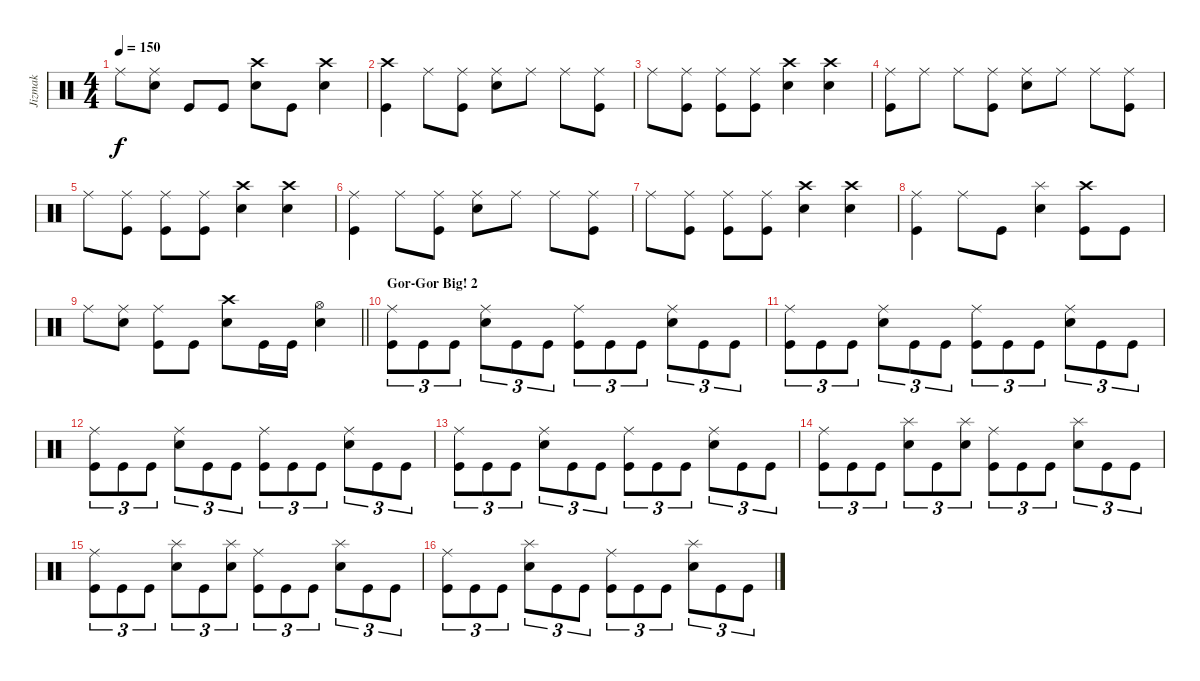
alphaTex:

\track ("Jizmak" "Jizmak") {instrument percussion}
\staff {score}
\articulation defaults
\ts (4 4)
\tempo 150
\clef neutral
\ks c "Ride (middle)".8{dy f}
("Ride (middle)" "Snare (hit) 2").8 "Kick (hit)".8 "Kick (hit)".8 ("Crash high (hit)" "Snare (hit) 2").8 "Kick (hit)".8 ("Crash high (hit)" "Snare (hit) 2").4 |
("Crash high (hit)" "Kick (hit)").4 "Ride (middle)".8 ("Ride (middle)" "Kick (hit)").8 ("Ride (middle)" "Snare (hit) 2").8 "Ride (middle)".8 "Ride (middle)".8 ("Ride (middle)" "Kick (hit)").8 |
"Ride (middle)".8 ("Ride (middle)" "Kick (hit)").8 ("Ride (middle)" "Kick (hit)").8 ("Ride (middle)" "Kick (hit)").8 ("Crash high (hit)" "Snare (hit) 2").4 ("Crash high (hit)" "Snare (hit) 2").4 |
("Ride (middle)" "Kick (hit)").8 "Ride (middle)".8 "Ride (middle)".8 ("Ride (middle)" "Kick (hit)").8 ("Ride (middle)" "Snare (hit) 2").8 "Ride (middle)".8 "Ride (middle)".8 ("Ride (middle)" "Kick (hit)").8 |
"Ride (middle)".8 ("Ride (middle)" "Kick (hit)").8 ("Ride (middle)" "Kick (hit)").8 ("Ride (middle)" "Kick (hit)").8 ("Crash high (hit)" "Snare (hit) 2").4 ("Crash high (hit)" "Snare (hit) 2").4 |
("Ride (middle)" "Kick (hit)").4 "Ride (middle)".8 ("Ride (middle)" "Kick (hit)").8 ("Ride (middle)" "Snare (hit) 2").8 "Ride (middle)".8 "Ride (middle)".8 ("Ride (middle)" "Kick (hit)").8 |
"Ride (middle)".8 ("Ride (middle)" "Kick (hit)").8 ("Ride (middle)" "Kick (hit)").8 ("Ride (middle)" "Kick (hit)").8 ("Crash high (hit)" "Snare (hit) 2").4 ("Crash high (hit)" "Snare (hit) 2").4 |
("Ride (middle)" "Kick (hit)").4 "Ride (middle)".8 "Kick (hit)".8 ("Splash (hit)" "Snare (hit) 2").4 ("Crash high (hit)" "Kick (hit)").8 "Kick (hit)".8 |
\barLineRight lightlight "Ride (middle)".8
("Ride (middle)" "Snare (hit) 2").8 ("Ride (middle)" "Kick (hit)").8 "Kick (hit)".8 ("Crash high (hit)" "Snare (hit) 2").8 "Kick (hit)".16 "Kick (hit)".16 ("Hi-Hat (open)" "Snare (hit) 2").4 |
\section ("" "Gor-Gor Big! 2")
("Ride (middle)" "Kick (hit)").8{tu (3 2)} "Kick (hit)".8{tu (3 2)} "Kick (hit)".8{tu (3 2)} ("Ride (middle)" "Snare (hit) 2").8{tu (3 2)} "Kick (hit)".8{tu (3 2)} "Kick (hit)".8{tu (3 2)} ("Ride (middle)" "Kick (hit)").8{tu (3 2)} "Kick (hit)".8{tu (3 2)} "Kick (hit)".8{tu (3 2)} ("Ride (middle)" "Snare (hit) 2").8{tu (3 2)} "Kick (hit)".8{tu (3 2)} "Kick (hit)".8{tu (3 2)} |
("Ride (middle)" "Kick (hit)").8{tu (3 2)} "Kick (hit)".8{tu (3 2)} "Kick (hit)".8{tu (3 2)} ("Ride (middle)" "Snare (hit) 2").8{tu (3 2)} "Kick (hit)".8{tu (3 2)} "Kick (hit)".8{tu (3 2)} ("Ride (middle)" "Kick (hit)").8{tu (3 2)} "Kick (hit)".8{tu (3 2)} "Kick (hit)".8{tu (3 2)} ("Ride (middle)" "Snare (hit) 2").8{tu (3 2)} "Kick (hit)".8{tu (3 2)} "Kick (hit)".8{tu (3 2)} |
("Ride (middle)" "Kick (hit)").8{tu (3 2)} "Kick (hit)".8{tu (3 2)} "Kick (hit)".8{tu (3 2)} ("Ride (middle)" "Snare (hit) 2").8{tu (3 2)} "Kick (hit)".8{tu (3 2)} "Kick (hit)".8{tu (3 2)} ("Ride (middle)" "Kick (hit)").8{tu (3 2)} "Kick (hit)".8{tu (3 2)} "Kick (hit)".8{tu (3 2)} ("Ride (middle)" "Snare (hit) 2").8{tu (3 2)} "Kick (hit)".8{tu (3 2)} "Kick (hit)".8{tu (3 2)} |
("Ride (middle)" "Kick (hit)").8{tu (3 2)} "Kick (hit)".8{tu (3 2)} "Kick (hit)".8{tu (3 2)} ("Ride (middle)" "Snare (hit) 2").8{tu (3 2)} "Kick (hit)".8{tu (3 2)} "Kick (hit)".8{tu (3 2)} ("Ride (middle)" "Kick (hit)").8{tu (3 2)} "Kick (hit)".8{tu (3 2)} "Kick (hit)".8{tu (3 2)} ("Ride (middle)" "Snare (hit) 2").8{tu (3 2)} "Kick (hit)".8{tu (3 2)} "Kick (hit)".8{tu (3 2)} |
("Ride (middle)" "Kick (hit)").8{tu (3 2)} "Kick (hit)".8{tu (3 2)} "Kick (hit)".8{tu (3 2)} ("Splash (hit)" "Snare (hit) 2").8{tu (3 2)} "Kick (hit)".8{tu (3 2)} ("Splash (hit)" "Snare (hit) 2").8{tu (3 2)} ("Ride (middle)" "Kick (hit)").8{tu (3 2)} "Kick (hit)".8{tu (3 2)} "Kick (hit)".8{tu (3 2)} ("Splash (hit)" "Snare (hit) 2").8{tu (3 2)} "Kick (hit)".8{tu (3 2)} "Kick (hit)".8{tu (3 2)} |
("Ride (middle)" "Kick (hit)").8{tu (3 2)} "Kick (hit)".8{tu (3 2)} "Kick (hit)".8{tu (3 2)} ("Splash (hit)" "Snare (hit) 2").8{tu (3 2)} "Kick (hit)".8{tu (3 2)} ("Splash (hit)" "Snare (hit) 2").8{tu (3 2)} ("Ride (middle)" "Kick (hit)").8{tu (3 2)} "Kick (hit)".8{tu (3 2)} "Kick (hit)".8{tu (3 2)} ("Splash (hit)" "Snare (hit) 2").8{tu (3 2)} "Kick (hit)".8{tu (3 2)} "Kick (hit)".8{tu (3 2)} |
("Ride (middle)" "Kick (hit)").8{tu (3 2)} "Kick (hit)".8{tu (3 2)} "Kick (hit)".8{tu (3 2)} ("Splash (hit)" "Snare (hit) 2").8{tu (3 2)} "Kick (hit)".8{tu (3 2)} "Kick (hit)".8{tu (3 2)} ("Ride (middle)" "Kick (hit)").8{tu (3 2)} "Kick (hit)".8{tu (3 2)} "Kick (hit)".8{tu (3 2)} ("Splash (hit)" "Snare (hit) 2").8{tu (3 2)} "Kick (hit)".8{tu (3 2)} "Kick (hit)".8{tu (3 2)}
